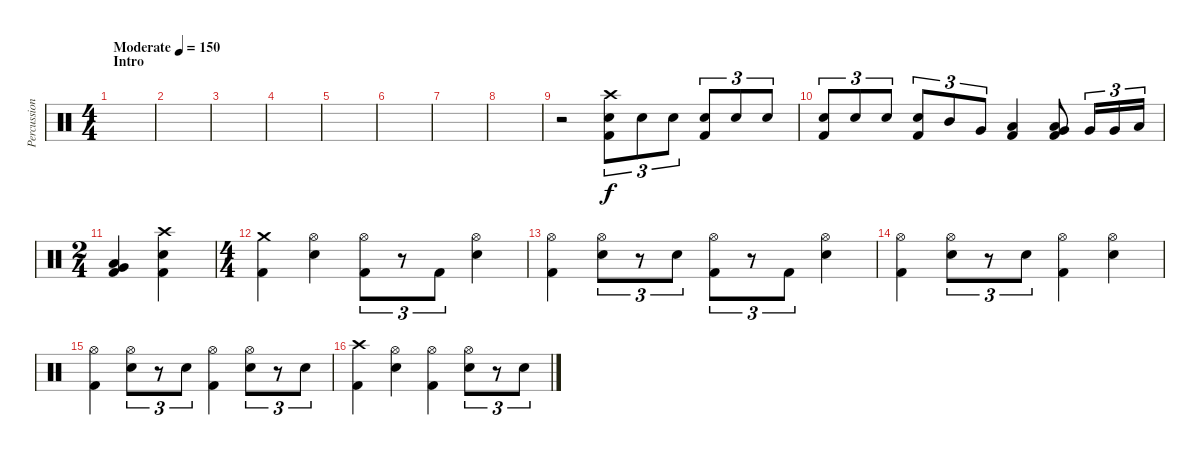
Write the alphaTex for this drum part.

\track ("Percussion" "Percussion") {instrument percussion}
\staff {score}
\articulation defaults
\ts (4 4)
\section ("" "Intro")
\tempo (150 "Moderate")
\clef neutral
\ks c
|
|
|
|
|
|
|
|
r.2 ("Crash high (hit)" "Electric Snare (hit)" "Kick (hit) 2").8{tu (3 2)} "Electric Snare (hit)".8{tu (3 2)} "Electric Snare (hit)".8{tu (3 2)} ("Electric Snare (hit)" "Kick (hit) 2").8{tu (3 2)} "Electric Snare (hit)".8{tu (3 2)} "Electric Snare (hit)".8{tu (3 2)} |
("Electric Snare (hit)" "Kick (hit) 2").8{tu (3 2)} "Electric Snare (hit)".8{tu (3 2)} "Electric Snare (hit)".8{tu (3 2)} ("Electric Snare (hit)" "Kick (hit) 2").8{tu (3 2)} "Mid Tom (hit)".8{tu (3 2)} "Very Low Tom (hit)".8{tu (3 2)} ("Low Floor Tom (hit)" "Kick (hit) 2").4 ("Low Floor Tom (hit)" "Very Low Tom (hit)" "Kick (hit) 2").8 "Very Low Tom (hit)".16{tu (3 2)} "Very Low Tom (hit)".16{tu (3 2)} "Low Floor Tom (hit)".16{tu (3 2)} |
\ts (2 4)
("Low Floor Tom (hit)" "Very Low Tom (hit)" "Kick (hit) 2").4 ("Crash high (hit)" "Electric Snare (hit)" "Kick (hit) 2").4 |
\ts (4 4)
("Crash medium (hit)" "Kick (hit) 2").4 ("Hi-Hat (open)" "Electric Snare (hit)").4 ("Hi-Hat (open)" "Kick (hit) 2").8{tu (3 2)} r.8{tu (3 2)} "Kick (hit) 2".8{tu (3 2)} ("Hi-Hat (open)" "Electric Snare (hit)").4 |
("Hi-Hat (open)" "Kick (hit) 2").4 ("Hi-Hat (open)" "Electric Snare (hit)").8{tu (3 2)} r.8{tu (3 2)} "Electric Snare (hit)".8{tu (3 2)} ("Hi-Hat (open)" "Kick (hit) 2").8{tu (3 2)} r.8{tu (3 2)} "Kick (hit) 2".8{tu (3 2)} ("Hi-Hat (open)" "Electric Snare (hit)").4 |
("Hi-Hat (open)" "Kick (hit) 2").4 ("Hi-Hat (open)" "Electric Snare (hit)").8{tu (3 2)} r.8{tu (3 2)} "Electric Snare (hit)".8{tu (3 2)} ("Hi-Hat (open)" "Kick (hit) 2").4 ("Hi-Hat (open)" "Electric Snare (hit)").4 |
("Hi-Hat (open)" "Kick (hit) 2").4 ("Hi-Hat (open)" "Electric Snare (hit)").8{tu (3 2)} r.8{tu (3 2)} "Electric Snare (hit)".8{tu (3 2)} ("Hi-Hat (open)" "Kick (hit) 2").4 ("Hi-Hat (open)" "Electric Snare (hit)").8{tu (3 2)} r.8{tu (3 2)} "Electric Snare (hit)".8{tu (3 2)} |
("Crash high (hit)" "Kick (hit) 2").4 ("Hi-Hat (open)" "Electric Snare (hit)").4 ("Hi-Hat (open)" "Kick (hit) 2").4 ("Hi-Hat (open)" "Electric Snare (hit)").8{tu (3 2)} r.8{tu (3 2)} "Electric Snare (hit)".8{tu (3 2)}
